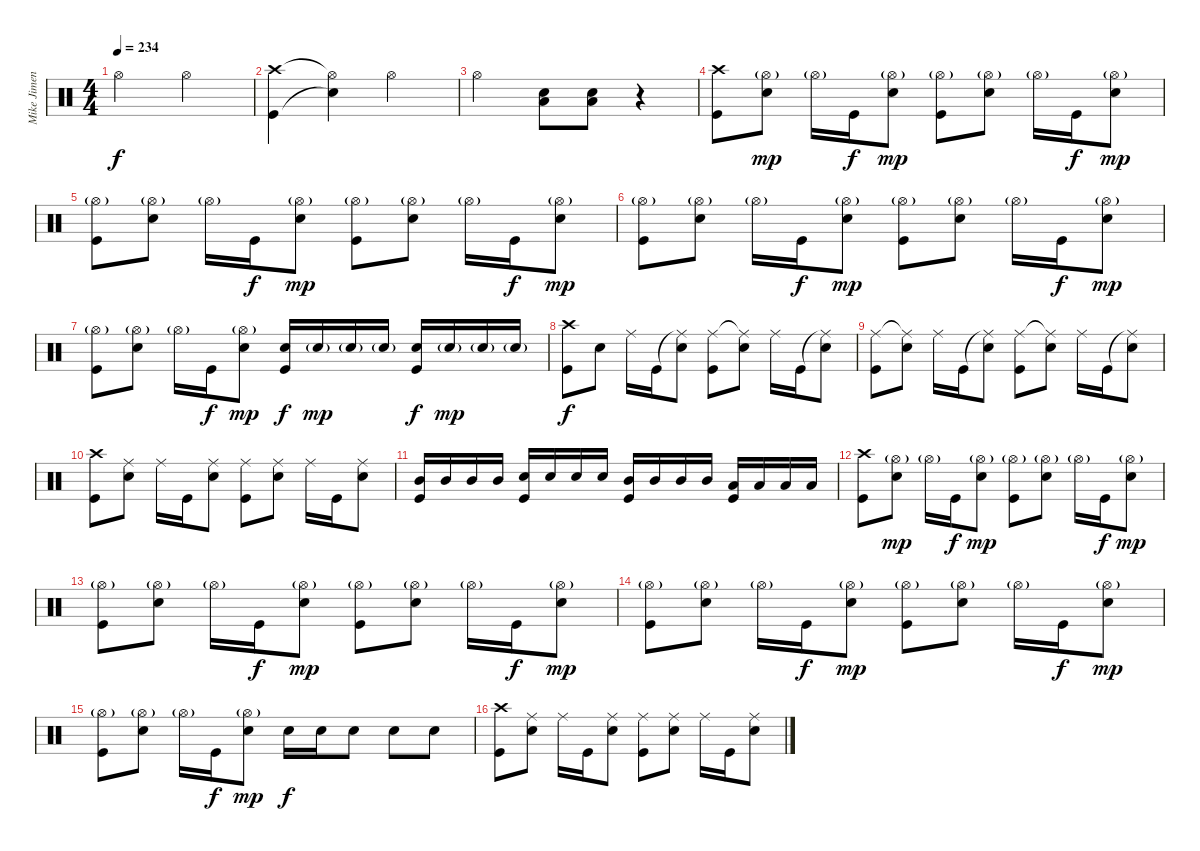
\track ("Mike Jimenez" "Mike Jimen") {instrument percussion}
\staff {score}
\articulation defaults
\ts (4 4)
\tempo 234
\clef neutral
\ks c "Hi-Hat (open)".2{dy f} "Hi-Hat (open)".2
|
("Crash high (hit)" "Kick (hit)").4 ("Hi-Hat (open)"{t} "Snare (hit)"{t}).4 "Hi-Hat (open)".2 |
"Hi-Hat (open)".2 ("Low Tom (hit)" "Electric Snare (hit)").8 ("Low Tom (hit)" "Electric Snare (hit)").8 r.4 |
("Crash high (hit)" "Kick (hit)").8 ("Hi-Hat (open)"{g} "Electric Snare (hit)").8{dy mp} "Hi-Hat (open)"{g}.16 "Kick (hit)".16{dy f} ("Hi-Hat (open)"{g} "Electric Snare (hit)").8{dy mp} ("Hi-Hat (open)"{g} "Kick (hit)").8 ("Hi-Hat (open)"{g} "Electric Snare (hit)").8 "Hi-Hat (open)"{g}.16 "Kick (hit)".16{dy f} ("Hi-Hat (open)"{g} "Electric Snare (hit)").8{dy mp} |
("Hi-Hat (open)"{g} "Kick (hit)").8 ("Hi-Hat (open)"{g} "Electric Snare (hit)").8 "Hi-Hat (open)"{g}.16 "Kick (hit)".16{dy f} ("Hi-Hat (open)"{g} "Electric Snare (hit)").8{dy mp} ("Hi-Hat (open)"{g} "Kick (hit)").8 ("Hi-Hat (open)"{g} "Electric Snare (hit)").8 "Hi-Hat (open)"{g}.16 "Kick (hit)".16{dy f} ("Hi-Hat (open)"{g} "Electric Snare (hit)").8{dy mp} |
("Hi-Hat (open)"{g} "Kick (hit)").8 ("Hi-Hat (open)"{g} "Electric Snare (hit)").8 "Hi-Hat (open)"{g}.16 "Kick (hit)".16{dy f} ("Hi-Hat (open)"{g} "Electric Snare (hit)").8{dy mp} ("Hi-Hat (open)"{g} "Kick (hit)").8 ("Hi-Hat (open)"{g} "Electric Snare (hit)").8 "Hi-Hat (open)"{g}.16 "Kick (hit)".16{dy f} ("Hi-Hat (open)"{g} "Electric Snare (hit)").8{dy mp} |
("Hi-Hat (open)"{g} "Kick (hit)").8 ("Hi-Hat (open)"{g} "Electric Snare (hit)").8 "Hi-Hat (open)"{g}.16 "Kick (hit)".16{dy f} ("Hi-Hat (open)"{g} "Electric Snare (hit)").8{dy mp} ("Electric Snare (hit)" "Kick (hit)").16{dy f} "Electric Snare (hit)"{g}.16{dy mp} "Electric Snare (hit)"{g}.16 "Electric Snare (hit)"{g}.16 ("Electric Snare (hit)" "Kick (hit)").16{dy f} "Electric Snare (hit)"{g}.16{dy mp} "Electric Snare (hit)"{g}.16 "Electric Snare (hit)"{g}.16 |
("Crash high (hit)" "Kick (hit)").8{dy f} "Electric Snare (hit)".8 "Ride (middle)".16 "Kick (hit)".16 ("Ride (middle)"{t} "Electric Snare (hit)").8 ("Ride (middle)" "Kick (hit)").8 ("Ride (middle)"{t} "Electric Snare (hit)").8 "Ride (middle)".16 "Kick (hit)".16 ("Ride (middle)"{t} "Electric Snare (hit)").8 |
("Ride (middle)" "Kick (hit)").8 ("Ride (middle)"{t} "Electric Snare (hit)").8 "Ride (middle)".16 "Kick (hit)".16 ("Ride (middle)"{t} "Electric Snare (hit)").8 ("Ride (middle)" "Kick (hit)").8 ("Ride (middle)"{t} "Electric Snare (hit)").8 "Ride (middle)".16 "Kick (hit)".16 ("Ride (middle)"{t} "Electric Snare (hit)").8 |
("Crash high (hit)" "Kick (hit)").8 ("Ride (middle)" "Electric Snare (hit)").8 "Ride (middle)".16 "Kick (hit)".16 ("Ride (middle)" "Electric Snare (hit)").8 ("Ride (middle)" "Kick (hit)").8 ("Ride (middle)" "Electric Snare (hit)").8 "Ride (middle)".16 "Kick (hit)".16 ("Ride (middle)" "Electric Snare (hit)").8 |
("Mid Tom (hit)" "Kick (hit)").16 "Mid Tom (hit)".16 "Mid Tom (hit)".16 "Mid Tom (hit)".16 ("Electric Snare (hit)" "Kick (hit)").16 "Electric Snare (hit)".16 "Electric Snare (hit)".16 "Electric Snare (hit)".16 ("Mid Tom (hit)" "Kick (hit)").16 "Mid Tom (hit)".16 "Mid Tom (hit)".16 "Mid Tom (hit)".16 ("Low Tom (hit)" "Kick (hit)").16 "Low Tom (hit)".16 "Low Tom (hit)".16 "Low Tom (hit)".16 |
("Crash high (hit)" "Kick (hit)").8 ("Hi-Hat (open)"{g} "Electric Snare (hit)").8{dy mp} "Hi-Hat (open)"{g}.16 "Kick (hit)".16{dy f} ("Hi-Hat (open)"{g} "Electric Snare (hit)").8{dy mp} ("Hi-Hat (open)"{g} "Kick (hit)").8 ("Hi-Hat (open)"{g} "Electric Snare (hit)").8 "Hi-Hat (open)"{g}.16 "Kick (hit)".16{dy f} ("Hi-Hat (open)"{g} "Electric Snare (hit)").8{dy mp} |
("Hi-Hat (open)"{g} "Kick (hit)").8 ("Hi-Hat (open)"{g} "Electric Snare (hit)").8 "Hi-Hat (open)"{g}.16 "Kick (hit)".16{dy f} ("Hi-Hat (open)"{g} "Electric Snare (hit)").8{dy mp} ("Hi-Hat (open)"{g} "Kick (hit)").8 ("Hi-Hat (open)"{g} "Electric Snare (hit)").8 "Hi-Hat (open)"{g}.16 "Kick (hit)".16{dy f} ("Hi-Hat (open)"{g} "Electric Snare (hit)").8{dy mp} |
("Hi-Hat (open)"{g} "Kick (hit)").8 ("Hi-Hat (open)"{g} "Electric Snare (hit)").8 "Hi-Hat (open)"{g}.16 "Kick (hit)".16{dy f} ("Hi-Hat (open)"{g} "Electric Snare (hit)").8{dy mp} ("Hi-Hat (open)"{g} "Kick (hit)").8 ("Hi-Hat (open)"{g} "Electric Snare (hit)").8 "Hi-Hat (open)"{g}.16 "Kick (hit)".16{dy f} ("Hi-Hat (open)"{g} "Electric Snare (hit)").8{dy mp} |
("Hi-Hat (open)"{g} "Kick (hit)").8 ("Hi-Hat (open)"{g} "Electric Snare (hit)").8 "Hi-Hat (open)"{g}.16 "Kick (hit)".16{dy f} ("Hi-Hat (open)"{g} "Electric Snare (hit)").8{dy mp} "Electric Snare (hit)".16{dy f} "Electric Snare (hit)".16 "Electric Snare (hit)".8 "Electric Snare (hit)".8 "Electric Snare (hit)".8 |
("Crash high (hit)" "Kick (hit)").8 ("Ride (middle)" "Electric Snare (hit)").8 "Ride (middle)".16 "Kick (hit)".16 ("Ride (middle)" "Electric Snare (hit)").8 ("Ride (middle)" "Kick (hit)").8 ("Ride (middle)" "Electric Snare (hit)").8 "Ride (middle)".16 "Kick (hit)".16 ("Ride (middle)" "Electric Snare (hit)").8
